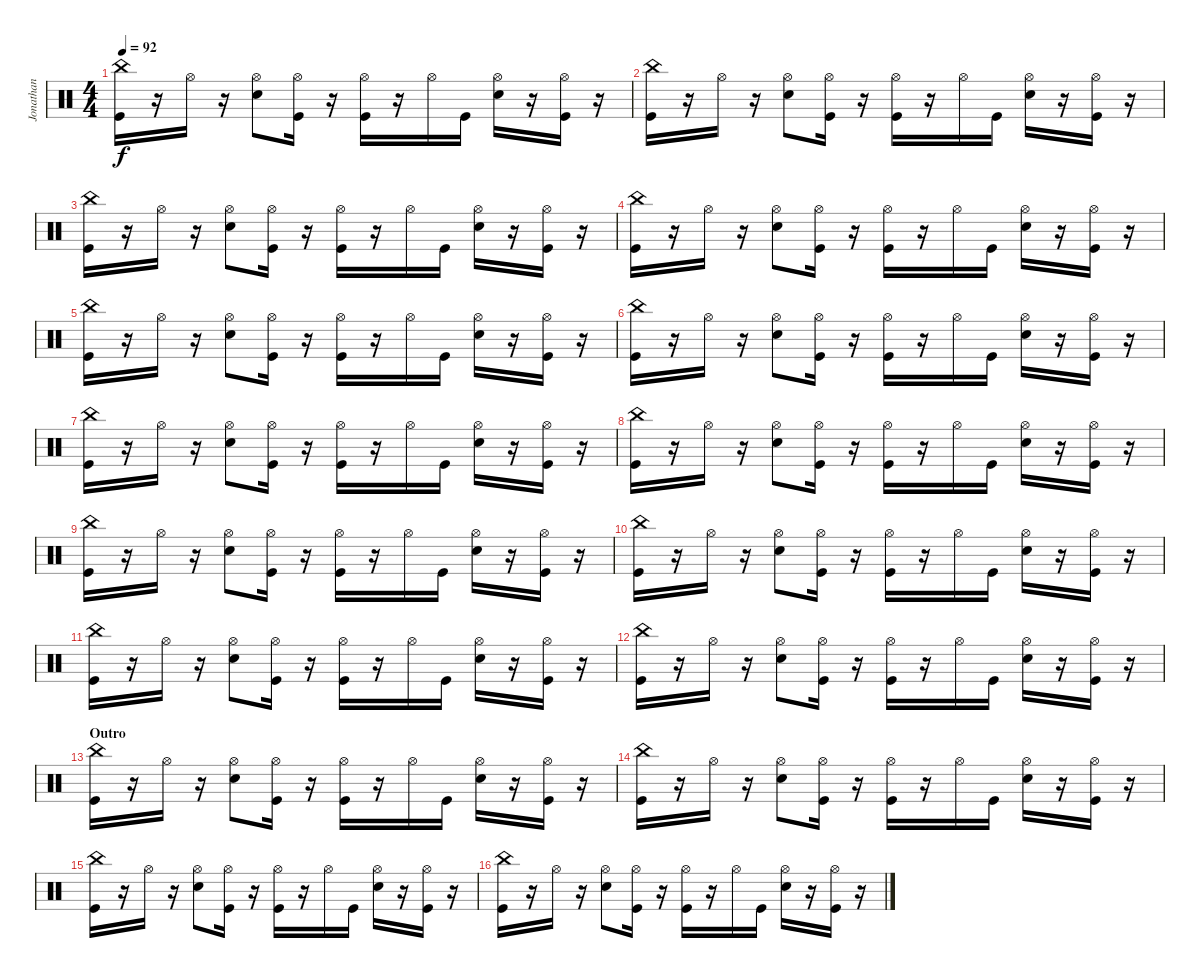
\track ("Jonathan" "Jonathan") {instrument percussion}
\staff {score}
\articulation defaults
\ts (4 4)
\tempo 92
\clef neutral
\ks c
("China (hit)" "Kick (hit)").16{dy f} r.16 "Hi-Hat (open)".16 r.16 ("Hi-Hat (open)" "Electric Snare (hit)").8 ("Hi-Hat (open)" "Kick (hit)").16 r.16 ("Hi-Hat (open)" "Kick (hit)").16 r.16 "Hi-Hat (open)".16 "Kick (hit)".16 ("Hi-Hat (open)" "Electric Snare (hit)").16 r.16 ("Hi-Hat (open)" "Kick (hit)").16 r.16 |
("China (hit)" "Kick (hit)").16 r.16 "Hi-Hat (open)".16 r.16 ("Hi-Hat (open)" "Electric Snare (hit)").8 ("Hi-Hat (open)" "Kick (hit)").16 r.16 ("Hi-Hat (open)" "Kick (hit)").16 r.16 "Hi-Hat (open)".16 "Kick (hit)".16 ("Hi-Hat (open)" "Electric Snare (hit)").16 r.16 ("Hi-Hat (open)" "Kick (hit)").16 r.16 |
("China (hit)" "Kick (hit)").16 r.16 "Hi-Hat (open)".16 r.16 ("Hi-Hat (open)" "Electric Snare (hit)").8 ("Hi-Hat (open)" "Kick (hit)").16 r.16 ("Hi-Hat (open)" "Kick (hit)").16 r.16 "Hi-Hat (open)".16 "Kick (hit)".16 ("Hi-Hat (open)" "Electric Snare (hit)").16 r.16 ("Hi-Hat (open)" "Kick (hit)").16 r.16 |
("China (hit)" "Kick (hit)").16 r.16 "Hi-Hat (open)".16 r.16 ("Hi-Hat (open)" "Electric Snare (hit)").8 ("Hi-Hat (open)" "Kick (hit)").16 r.16 ("Hi-Hat (open)" "Kick (hit)").16 r.16 "Hi-Hat (open)".16 "Kick (hit)".16 ("Hi-Hat (open)" "Electric Snare (hit)").16 r.16 ("Hi-Hat (open)" "Kick (hit)").16 r.16 |
("China (hit)" "Kick (hit)").16 r.16 "Hi-Hat (open)".16 r.16 ("Hi-Hat (open)" "Electric Snare (hit)").8 ("Hi-Hat (open)" "Kick (hit)").16 r.16 ("Hi-Hat (open)" "Kick (hit)").16 r.16 "Hi-Hat (open)".16 "Kick (hit)".16 ("Hi-Hat (open)" "Electric Snare (hit)").16 r.16 ("Hi-Hat (open)" "Kick (hit)").16 r.16 |
("China (hit)" "Kick (hit)").16 r.16 "Hi-Hat (open)".16 r.16 ("Hi-Hat (open)" "Electric Snare (hit)").8 ("Hi-Hat (open)" "Kick (hit)").16 r.16 ("Hi-Hat (open)" "Kick (hit)").16 r.16 "Hi-Hat (open)".16 "Kick (hit)".16 ("Hi-Hat (open)" "Electric Snare (hit)").16 r.16 ("Hi-Hat (open)" "Kick (hit)").16 r.16 |
("China (hit)" "Kick (hit)").16 r.16 "Hi-Hat (open)".16 r.16 ("Hi-Hat (open)" "Electric Snare (hit)").8 ("Hi-Hat (open)" "Kick (hit)").16 r.16 ("Hi-Hat (open)" "Kick (hit)").16 r.16 "Hi-Hat (open)".16 "Kick (hit)".16 ("Hi-Hat (open)" "Electric Snare (hit)").16 r.16 ("Hi-Hat (open)" "Kick (hit)").16 r.16 |
("China (hit)" "Kick (hit)").16 r.16 "Hi-Hat (open)".16 r.16 ("Hi-Hat (open)" "Electric Snare (hit)").8 ("Hi-Hat (open)" "Kick (hit)").16 r.16 ("Hi-Hat (open)" "Kick (hit)").16 r.16 "Hi-Hat (open)".16 "Kick (hit)".16 ("Hi-Hat (open)" "Electric Snare (hit)").16 r.16 ("Hi-Hat (open)" "Kick (hit)").16 r.16 |
("China (hit)" "Kick (hit)").16 r.16 "Hi-Hat (open)".16 r.16 ("Hi-Hat (open)" "Electric Snare (hit)").8 ("Hi-Hat (open)" "Kick (hit)").16 r.16 ("Hi-Hat (open)" "Kick (hit)").16 r.16 "Hi-Hat (open)".16 "Kick (hit)".16 ("Hi-Hat (open)" "Electric Snare (hit)").16 r.16 ("Hi-Hat (open)" "Kick (hit)").16 r.16 |
("China (hit)" "Kick (hit)").16 r.16 "Hi-Hat (open)".16 r.16 ("Hi-Hat (open)" "Electric Snare (hit)").8 ("Hi-Hat (open)" "Kick (hit)").16 r.16 ("Hi-Hat (open)" "Kick (hit)").16 r.16 "Hi-Hat (open)".16 "Kick (hit)".16 ("Hi-Hat (open)" "Electric Snare (hit)").16 r.16 ("Hi-Hat (open)" "Kick (hit)").16 r.16 |
("China (hit)" "Kick (hit)").16 r.16 "Hi-Hat (open)".16 r.16 ("Hi-Hat (open)" "Electric Snare (hit)").8 ("Hi-Hat (open)" "Kick (hit)").16 r.16 ("Hi-Hat (open)" "Kick (hit)").16 r.16 "Hi-Hat (open)".16 "Kick (hit)".16 ("Hi-Hat (open)" "Electric Snare (hit)").16 r.16 ("Hi-Hat (open)" "Kick (hit)").16 r.16 |
("China (hit)" "Kick (hit)").16 r.16 "Hi-Hat (open)".16 r.16 ("Hi-Hat (open)" "Electric Snare (hit)").8 ("Hi-Hat (open)" "Kick (hit)").16 r.16 ("Hi-Hat (open)" "Kick (hit)").16 r.16 "Hi-Hat (open)".16 "Kick (hit)".16 ("Hi-Hat (open)" "Electric Snare (hit)").16 r.16 ("Hi-Hat (open)" "Kick (hit)").16 r.16 |
\section ("" "Outro")
("China (hit)" "Kick (hit)").16 r.16 "Hi-Hat (open)".16 r.16 ("Hi-Hat (open)" "Electric Snare (hit)").8 ("Hi-Hat (open)" "Kick (hit)").16 r.16 ("Hi-Hat (open)" "Kick (hit)").16 r.16 "Hi-Hat (open)".16 "Kick (hit)".16 ("Hi-Hat (open)" "Electric Snare (hit)").16 r.16 ("Hi-Hat (open)" "Kick (hit)").16 r.16 |
("China (hit)" "Kick (hit)").16 r.16 "Hi-Hat (open)".16 r.16 ("Hi-Hat (open)" "Electric Snare (hit)").8 ("Hi-Hat (open)" "Kick (hit)").16 r.16 ("Hi-Hat (open)" "Kick (hit)").16 r.16 "Hi-Hat (open)".16 "Kick (hit)".16 ("Hi-Hat (open)" "Electric Snare (hit)").16 r.16 ("Hi-Hat (open)" "Kick (hit)").16 r.16 |
("China (hit)" "Kick (hit)").16 r.16 "Hi-Hat (open)".16 r.16 ("Hi-Hat (open)" "Electric Snare (hit)").8 ("Hi-Hat (open)" "Kick (hit)").16 r.16 ("Hi-Hat (open)" "Kick (hit)").16 r.16 "Hi-Hat (open)".16 "Kick (hit)".16 ("Hi-Hat (open)" "Electric Snare (hit)").16 r.16 ("Hi-Hat (open)" "Kick (hit)").16 r.16 |
("China (hit)" "Kick (hit)").16 r.16 "Hi-Hat (open)".16 r.16 ("Hi-Hat (open)" "Electric Snare (hit)").8 ("Hi-Hat (open)" "Kick (hit)").16 r.16 ("Hi-Hat (open)" "Kick (hit)").16 r.16 "Hi-Hat (open)".16 "Kick (hit)".16 ("Hi-Hat (open)" "Electric Snare (hit)").16 r.16 ("Hi-Hat (open)" "Kick (hit)").16 r.16
